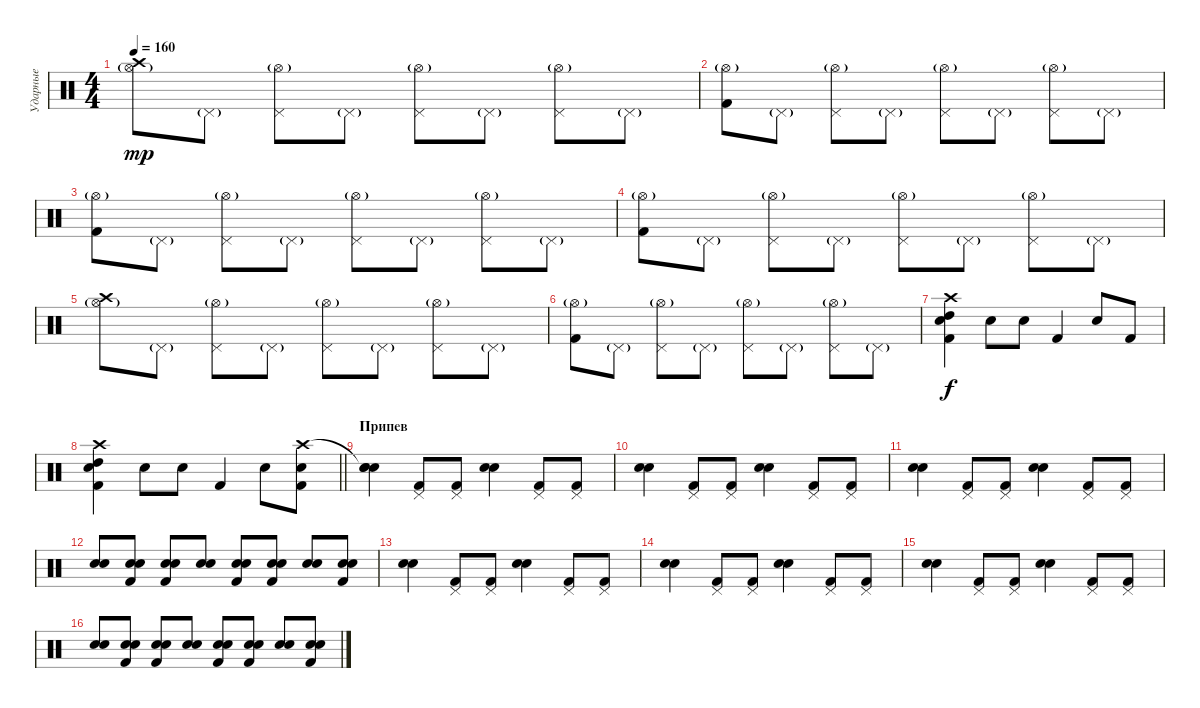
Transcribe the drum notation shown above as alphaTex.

\track ("Ударные" "Ударные") {instrument percussion}
\staff {score}
\articulation defaults
\ts (4 4)
\tempo 160
\clef neutral
\ks c
("Crash high (hit)" "Hi-Hat (open)"{g}).8{dy mp} "Pedal Hi-Hat (hit)"{g}.8 ("Pedal Hi-Hat (hit)" "Hi-Hat (open)"{g}).8 "Pedal Hi-Hat (hit)"{g}.8 ("Pedal Hi-Hat (hit)" "Hi-Hat (open)"{g}).8 "Pedal Hi-Hat (hit)"{g}.8 ("Pedal Hi-Hat (hit)" "Hi-Hat (open)"{g}).8 "Pedal Hi-Hat (hit)"{g}.8 |
("Kick (hit) 2" "Hi-Hat (open)"{g}).8 "Pedal Hi-Hat (hit)"{g}.8 ("Pedal Hi-Hat (hit)" "Hi-Hat (open)"{g}).8 "Pedal Hi-Hat (hit)"{g}.8 ("Pedal Hi-Hat (hit)" "Hi-Hat (open)"{g}).8 "Pedal Hi-Hat (hit)"{g}.8 ("Pedal Hi-Hat (hit)" "Hi-Hat (open)"{g}).8 "Pedal Hi-Hat (hit)"{g}.8 |
("Kick (hit) 2" "Hi-Hat (open)"{g}).8 "Pedal Hi-Hat (hit)"{g}.8 ("Pedal Hi-Hat (hit)" "Hi-Hat (open)"{g}).8 "Pedal Hi-Hat (hit)"{g}.8 ("Pedal Hi-Hat (hit)" "Hi-Hat (open)"{g}).8 "Pedal Hi-Hat (hit)"{g}.8 ("Pedal Hi-Hat (hit)" "Hi-Hat (open)"{g}).8 "Pedal Hi-Hat (hit)"{g}.8 |
("Kick (hit) 2" "Hi-Hat (open)"{g}).8 "Pedal Hi-Hat (hit)"{g}.8 ("Pedal Hi-Hat (hit)" "Hi-Hat (open)"{g}).8 "Pedal Hi-Hat (hit)"{g}.8 ("Pedal Hi-Hat (hit)" "Hi-Hat (open)"{g}).8 "Pedal Hi-Hat (hit)"{g}.8 ("Pedal Hi-Hat (hit)" "Hi-Hat (open)"{g}).8 "Pedal Hi-Hat (hit)"{g}.8 |
("Crash high (hit)" "Hi-Hat (open)"{g}).8 "Pedal Hi-Hat (hit)"{g}.8 ("Pedal Hi-Hat (hit)" "Hi-Hat (open)"{g}).8 "Pedal Hi-Hat (hit)"{g}.8 ("Pedal Hi-Hat (hit)" "Hi-Hat (open)"{g}).8 "Pedal Hi-Hat (hit)"{g}.8 ("Pedal Hi-Hat (hit)" "Hi-Hat (open)"{g}).8 "Pedal Hi-Hat (hit)"{g}.8 |
("Kick (hit) 2" "Hi-Hat (open)"{g}).8 "Pedal Hi-Hat (hit)"{g}.8 ("Pedal Hi-Hat (hit)" "Hi-Hat (open)"{g}).8 "Pedal Hi-Hat (hit)"{g}.8 ("Pedal Hi-Hat (hit)" "Hi-Hat (open)"{g}).8 "Pedal Hi-Hat (hit)"{g}.8 ("Pedal Hi-Hat (hit)" "Hi-Hat (open)"{g}).8 "Pedal Hi-Hat (hit)"{g}.8 |
("Kick (hit) 2" "High Tom (hit)" "Electric Snare (hit)" "Crash high (hit)").4{dy f} "Electric Snare (hit)".8 "Electric Snare (hit)".8 "Kick (hit) 2".4 "Electric Snare (hit)".8 "Kick (hit) 2".8 |
\barLineRight lightlight
("Kick (hit) 2" "High Tom (hit)" "Electric Snare (hit)" "Crash high (hit)").4 "Electric Snare (hit)".8 "Electric Snare (hit)".8 "Kick (hit) 2".4 "Electric Snare (hit)".8 ("Electric Snare (hit)" "Kick (hit) 2" "Crash high (hit)").8 |
\section ("" "Припев")
("Snare (hit) 2" "Electric Snare (hit)" "Snare (hit)"{t}).4 ("Kick (hit) 2" "Pedal Hi-Hat (hit)").8 ("Kick (hit) 2" "Pedal Hi-Hat (hit)").8 ("Snare (hit) 2" "Electric Snare (hit)").4 ("Kick (hit) 2" "Pedal Hi-Hat (hit)").8 ("Kick (hit) 2" "Pedal Hi-Hat (hit)").8 |
("Snare (hit) 2" "Electric Snare (hit)").4 ("Kick (hit) 2" "Pedal Hi-Hat (hit)").8 ("Kick (hit) 2" "Pedal Hi-Hat (hit)").8 ("Snare (hit) 2" "Electric Snare (hit)").4 ("Kick (hit) 2" "Pedal Hi-Hat (hit)").8 ("Kick (hit) 2" "Pedal Hi-Hat (hit)").8 |
("Snare (hit) 2" "Electric Snare (hit)").4 ("Kick (hit) 2" "Pedal Hi-Hat (hit)").8 ("Kick (hit) 2" "Pedal Hi-Hat (hit)").8 ("Snare (hit) 2" "Electric Snare (hit)").4 ("Kick (hit) 2" "Pedal Hi-Hat (hit)").8 ("Kick (hit) 2" "Pedal Hi-Hat (hit)").8 |
("Snare (hit) 2" "Electric Snare (hit)").8 ("Snare (hit) 2" "Kick (hit) 2" "Electric Snare (hit)").8 ("Snare (hit) 2" "Kick (hit) 2" "Electric Snare (hit)").8 ("Snare (hit) 2" "Electric Snare (hit)").8 ("Snare (hit) 2" "Kick (hit) 2" "Electric Snare (hit)").8 ("Snare (hit) 2" "Kick (hit) 2" "Electric Snare (hit)").8 ("Snare (hit) 2" "Electric Snare (hit)").8 ("Snare (hit) 2" "Kick (hit) 2" "Electric Snare (hit)").8 |
("Snare (hit) 2" "Electric Snare (hit)").4 ("Kick (hit) 2" "Pedal Hi-Hat (hit)").8 ("Kick (hit) 2" "Pedal Hi-Hat (hit)").8 ("Snare (hit) 2" "Electric Snare (hit)").4 ("Kick (hit) 2" "Pedal Hi-Hat (hit)").8 ("Kick (hit) 2" "Pedal Hi-Hat (hit)").8 |
("Snare (hit) 2" "Electric Snare (hit)").4 ("Kick (hit) 2" "Pedal Hi-Hat (hit)").8 ("Kick (hit) 2" "Pedal Hi-Hat (hit)").8 ("Snare (hit) 2" "Electric Snare (hit)").4 ("Kick (hit) 2" "Pedal Hi-Hat (hit)").8 ("Kick (hit) 2" "Pedal Hi-Hat (hit)").8 |
("Snare (hit) 2" "Electric Snare (hit)").4 ("Kick (hit) 2" "Pedal Hi-Hat (hit)").8 ("Kick (hit) 2" "Pedal Hi-Hat (hit)").8 ("Snare (hit) 2" "Electric Snare (hit)").4 ("Kick (hit) 2" "Pedal Hi-Hat (hit)").8 ("Kick (hit) 2" "Pedal Hi-Hat (hit)").8 |
("Snare (hit) 2" "Electric Snare (hit)").8 ("Snare (hit) 2" "Kick (hit) 2" "Electric Snare (hit)").8 ("Snare (hit) 2" "Kick (hit) 2" "Electric Snare (hit)").8 ("Snare (hit) 2" "Electric Snare (hit)").8 ("Snare (hit) 2" "Kick (hit) 2" "Electric Snare (hit)").8 ("Snare (hit) 2" "Kick (hit) 2" "Electric Snare (hit)").8 ("Snare (hit) 2" "Electric Snare (hit)").8 ("Snare (hit) 2" "Kick (hit) 2" "Electric Snare (hit)").8
